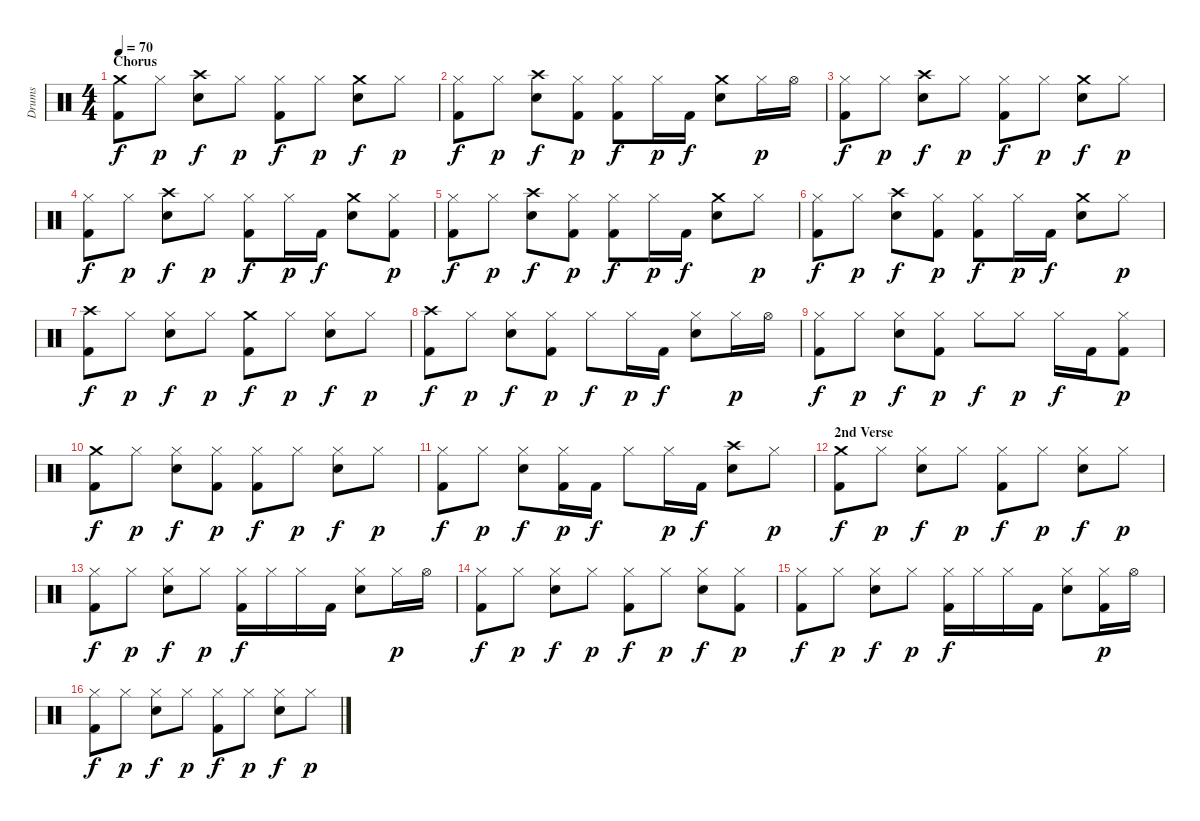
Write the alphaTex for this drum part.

\track ("Drums" "Drums") {instrument percussion}
\staff {score}
\articulation defaults
\ts (4 4)
\section ("" "Chorus")
\tempo 70
\clef neutral
\ks c
("Crash medium (hit)" "Kick (hit) 2").8{dy f} "Hi-Hat (closed)".8{dy p} ("Crash high (hit)" "Snare (hit) 2").8{dy f} "Hi-Hat (closed)".8{dy p} ("Hi-Hat (closed)" "Kick (hit) 2").8{dy f} "Hi-Hat (closed)".8{dy p} ("Crash medium (hit)" "Snare (hit) 2").8{dy f} "Hi-Hat (closed)".8{dy p} |
("Hi-Hat (closed)" "Kick (hit) 2").8{dy f} "Hi-Hat (closed)".8{dy p} ("Crash high (hit)" "Snare (hit) 2").8{dy f} ("Hi-Hat (closed)" "Kick (hit) 2").8{dy p} ("Hi-Hat (closed)" "Kick (hit) 2").8{dy f} "Hi-Hat (closed)".16{dy p} "Kick (hit) 2".16{dy f} ("Crash medium (hit)" "Snare (hit) 2").8 "Hi-Hat (closed)".16{dy p} "Hi-Hat (open)".16 |
("Hi-Hat (closed)" "Kick (hit) 2").8{dy f} "Hi-Hat (closed)".8{dy p} ("Crash high (hit)" "Snare (hit) 2").8{dy f} "Hi-Hat (closed)".8{dy p} ("Hi-Hat (closed)" "Kick (hit) 2").8{dy f} "Hi-Hat (closed)".8{dy p} ("Crash medium (hit)" "Snare (hit) 2").8{dy f} "Hi-Hat (closed)".8{dy p} |
("Hi-Hat (closed)" "Kick (hit) 2").8{dy f} "Hi-Hat (closed)".8{dy p} ("Crash high (hit)" "Snare (hit) 2").8{dy f} "Hi-Hat (closed)".8{dy p} ("Hi-Hat (closed)" "Kick (hit) 2").8{dy f} "Hi-Hat (closed)".16{dy p} "Kick (hit) 2".16{dy f} ("Crash medium (hit)" "Snare (hit) 2").8 ("Hi-Hat (closed)" "Kick (hit) 2").8{dy p} |
("Hi-Hat (closed)" "Kick (hit) 2").8{dy f} "Hi-Hat (closed)".8{dy p} ("Crash high (hit)" "Snare (hit) 2").8{dy f} ("Hi-Hat (closed)" "Kick (hit) 2").8{dy p} ("Hi-Hat (closed)" "Kick (hit) 2").8{dy f} "Hi-Hat (closed)".16{dy p} "Kick (hit) 2".16{dy f} ("Crash medium (hit)" "Snare (hit) 2").8 "Hi-Hat (closed)".8{dy p} |
("Hi-Hat (closed)" "Kick (hit) 2").8{dy f} "Hi-Hat (closed)".8{dy p} ("Crash high (hit)" "Snare (hit) 2").8{dy f} ("Hi-Hat (closed)" "Kick (hit) 2").8{dy p} ("Hi-Hat (closed)" "Kick (hit) 2").8{dy f} "Hi-Hat (closed)".16{dy p} "Kick (hit) 2".16{dy f} ("Crash medium (hit)" "Snare (hit) 2").8 "Hi-Hat (closed)".8{dy p} |
("Crash high (hit)" "Kick (hit) 2").8{dy f} "Hi-Hat (closed)".8{dy p} ("Hi-Hat (closed)" "Snare (hit) 2").8{dy f} "Hi-Hat (closed)".8{dy p} ("Crash medium (hit)" "Kick (hit) 2").8{dy f} "Hi-Hat (closed)".8{dy p} ("Hi-Hat (closed)" "Snare (hit) 2").8{dy f} "Hi-Hat (closed)".8{dy p} |
("Crash high (hit)" "Kick (hit) 2").8{dy f} "Hi-Hat (closed)".8{dy p} ("Hi-Hat (closed)" "Snare (hit) 2").8{dy f} ("Hi-Hat (closed)" "Kick (hit) 2").8{dy p} "Hi-Hat (closed)".8{dy f} "Hi-Hat (closed)".16{dy p} "Kick (hit) 2".16{dy f} ("Hi-Hat (closed)" "Snare (hit) 2").8 "Hi-Hat (closed)".16{dy p} "Hi-Hat (open)".16 |
("Hi-Hat (closed)" "Kick (hit) 2").8{dy f} "Hi-Hat (closed)".8{dy p} ("Hi-Hat (closed)" "Snare (hit) 2").8{dy f} ("Hi-Hat (closed)" "Kick (hit) 2").8{dy p} "Hi-Hat (closed)".8{dy f} "Hi-Hat (closed)".8{dy p} "Hi-Hat (closed)".16{dy f} "Kick (hit) 2".16 ("Hi-Hat (closed)" "Kick (hit) 2").8{dy p} |
\section ("" "")
("Crash medium (hit)" "Kick (hit) 2").8{dy f} "Hi-Hat (closed)".8{dy p} ("Hi-Hat (closed)" "Snare (hit) 2").8{dy f} ("Hi-Hat (closed)" "Kick (hit) 2").8{dy p} ("Hi-Hat (closed)" "Kick (hit) 2").8{dy f} "Hi-Hat (closed)".8{dy p} ("Hi-Hat (closed)" "Snare (hit) 2").8{dy f} "Hi-Hat (closed)".8{dy p} |
("Hi-Hat (closed)" "Kick (hit) 2").8{dy f} "Hi-Hat (closed)".8{dy p} ("Hi-Hat (closed)" "Snare (hit) 2").8{dy f} ("Hi-Hat (closed)" "Kick (hit) 2").16{dy p} "Kick (hit) 2".16{dy f} "Hi-Hat (closed)".8 "Hi-Hat (closed)".16{dy p} "Kick (hit) 2".16{dy f} ("Crash high (hit)" "Snare (hit) 2").8 "Hi-Hat (closed)".8{dy p} |
\section ("" "2nd Verse")
("Crash medium (hit)" "Kick (hit) 2").8{dy f} "Hi-Hat (closed)".8{dy p} ("Hi-Hat (closed)" "Snare (hit) 2").8{dy f} "Hi-Hat (closed)".8{dy p} ("Hi-Hat (closed)" "Kick (hit) 2").8{dy f} "Hi-Hat (closed)".8{dy p} ("Hi-Hat (closed)" "Snare (hit) 2").8{dy f} "Hi-Hat (closed)".8{dy p} |
("Hi-Hat (closed)" "Kick (hit) 2").8{dy f} "Hi-Hat (closed)".8{dy p} ("Hi-Hat (closed)" "Snare (hit) 2").8{dy f} "Hi-Hat (closed)".8{dy p} ("Hi-Hat (closed)" "Kick (hit) 2").16{dy f} "Hi-Hat (closed)".16 "Hi-Hat (closed)".16 "Kick (hit) 2".16 ("Hi-Hat (closed)" "Snare (hit) 2").8 "Hi-Hat (closed)".16{dy p} "Hi-Hat (open)".16 |
("Hi-Hat (closed)" "Kick (hit) 2").8{dy f} "Hi-Hat (closed)".8{dy p} ("Hi-Hat (closed)" "Snare (hit) 2").8{dy f} "Hi-Hat (closed)".8{dy p} ("Hi-Hat (closed)" "Kick (hit) 2").8{dy f} "Hi-Hat (closed)".8{dy p} ("Hi-Hat (closed)" "Snare (hit) 2").8{dy f} ("Hi-Hat (closed)" "Kick (hit) 2").8{dy p} |
("Hi-Hat (closed)" "Kick (hit) 2").8{dy f} "Hi-Hat (closed)".8{dy p} ("Hi-Hat (closed)" "Snare (hit) 2").8{dy f} "Hi-Hat (closed)".8{dy p} ("Hi-Hat (closed)" "Kick (hit) 2").16{dy f} "Hi-Hat (closed)".16 "Hi-Hat (closed)".16 "Kick (hit) 2".16 ("Hi-Hat (closed)" "Snare (hit) 2").8 ("Hi-Hat (closed)" "Kick (hit) 2").16{dy p} "Hi-Hat (open)".16 |
("Hi-Hat (closed)" "Kick (hit) 2").8{dy f} "Hi-Hat (closed)".8{dy p} ("Hi-Hat (closed)" "Snare (hit) 2").8{dy f} "Hi-Hat (closed)".8{dy p} ("Hi-Hat (closed)" "Kick (hit) 2").8{dy f} "Hi-Hat (closed)".8{dy p} ("Hi-Hat (closed)" "Snare (hit) 2").8{dy f} "Hi-Hat (closed)".8{dy p}
